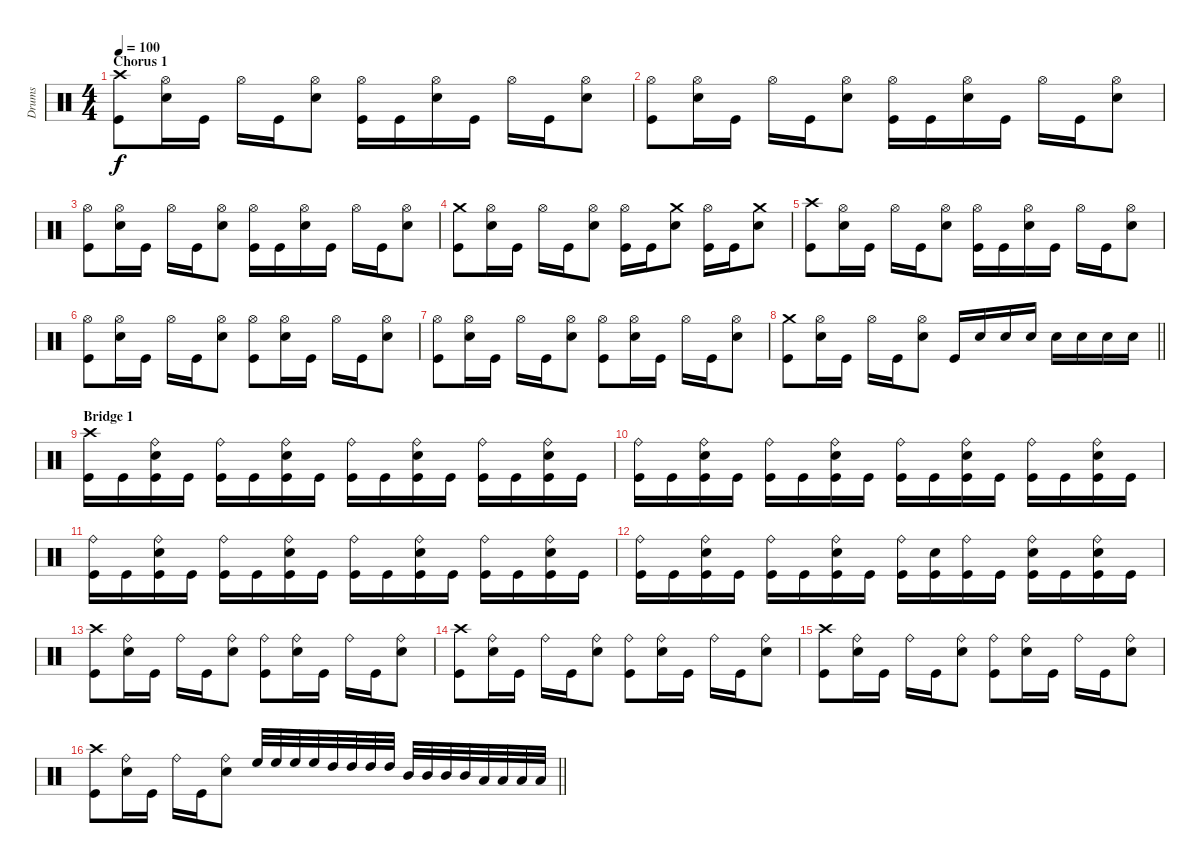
\track ("Drums" "Drums") {instrument percussion}
\staff {score}
\articulation defaults
\ts (4 4)
\section ("" "Chorus 1")
\tempo 100
\clef neutral
\ks c
("Kick (hit)" "Crash high (hit)").8{dy f} ("Electric Snare (hit)" "Hi-Hat (open)").16 "Kick (hit)".16 "Hi-Hat (open)".16 "Kick (hit)".16 ("Electric Snare (hit)" "Hi-Hat (open)").8 ("Kick (hit)" "Hi-Hat (open)").16 "Kick (hit)".16 ("Electric Snare (hit)" "Hi-Hat (open)").16 "Kick (hit)".16 "Hi-Hat (open)".16 "Kick (hit)".16 ("Electric Snare (hit)" "Hi-Hat (open)").8 |
("Kick (hit)" "Hi-Hat (open)").8 ("Electric Snare (hit)" "Hi-Hat (open)").16 "Kick (hit)".16 "Hi-Hat (open)".16 "Kick (hit)".16 ("Electric Snare (hit)" "Hi-Hat (open)").8 ("Kick (hit)" "Hi-Hat (open)").16 "Kick (hit)".16 ("Electric Snare (hit)" "Hi-Hat (open)").16 "Kick (hit)".16 "Hi-Hat (open)".16 "Kick (hit)".16 ("Electric Snare (hit)" "Hi-Hat (open)").8 |
("Kick (hit)" "Hi-Hat (open)").8 ("Electric Snare (hit)" "Hi-Hat (open)").16 "Kick (hit)".16 "Hi-Hat (open)".16 "Kick (hit)".16 ("Electric Snare (hit)" "Hi-Hat (open)").8 ("Kick (hit)" "Hi-Hat (open)").16 "Kick (hit)".16 ("Electric Snare (hit)" "Hi-Hat (open)").16 "Kick (hit)".16 "Hi-Hat (open)".16 "Kick (hit)".16 ("Electric Snare (hit)" "Hi-Hat (open)").8 |
("Kick (hit)" "Crash medium (hit)").8 ("Electric Snare (hit)" "Hi-Hat (open)").16 "Kick (hit)".16 "Hi-Hat (open)".16 "Kick (hit)".16 ("Electric Snare (hit)" "Hi-Hat (open)").8 ("Kick (hit)" "Hi-Hat (open)").16 "Kick (hit)".16 ("Electric Snare (hit)" "Crash medium (hit)").8 ("Kick (hit)" "Hi-Hat (open)").16 "Kick (hit)".16 ("Electric Snare (hit)" "Crash medium (hit)").8 |
("Kick (hit)" "Crash high (hit)").8 ("Electric Snare (hit)" "Hi-Hat (open)").16 "Kick (hit)".16 "Hi-Hat (open)".16 "Kick (hit)".16 ("Electric Snare (hit)" "Hi-Hat (open)").8 ("Kick (hit)" "Hi-Hat (open)").16 "Kick (hit)".16 ("Electric Snare (hit)" "Hi-Hat (open)").16 "Kick (hit)".16 "Hi-Hat (open)".16 "Kick (hit)".16 ("Electric Snare (hit)" "Hi-Hat (open)").8 |
("Kick (hit)" "Hi-Hat (open)").8 ("Electric Snare (hit)" "Hi-Hat (open)").16 "Kick (hit)".16 "Hi-Hat (open)".16 "Kick (hit)".16 ("Electric Snare (hit)" "Hi-Hat (open)").8 ("Kick (hit)" "Hi-Hat (open)").8 ("Electric Snare (hit)" "Hi-Hat (open)").16 "Kick (hit)".16 "Hi-Hat (open)".16 "Kick (hit)".16 ("Electric Snare (hit)" "Hi-Hat (open)").8 |
("Kick (hit)" "Hi-Hat (open)").8 ("Electric Snare (hit)" "Hi-Hat (open)").16 "Kick (hit)".16 "Hi-Hat (open)".16 "Kick (hit)".16 ("Electric Snare (hit)" "Hi-Hat (open)").8 ("Kick (hit)" "Hi-Hat (open)").8 ("Electric Snare (hit)" "Hi-Hat (open)").16 "Kick (hit)".16 "Hi-Hat (open)".16 "Kick (hit)".16 ("Electric Snare (hit)" "Hi-Hat (open)").8 |
\barLineRight lightlight
("Kick (hit)" "Crash medium (hit)").8 ("Electric Snare (hit)" "Hi-Hat (open)").16 "Kick (hit)".16 "Hi-Hat (open)".16 "Kick (hit)".16 ("Electric Snare (hit)" "Hi-Hat (open)").8 "Kick (hit)".16 "Electric Snare (hit)".16 "Electric Snare (hit)".16 "Electric Snare (hit)".16 "Electric Snare (hit)".16 "Electric Snare (hit)".16 "Electric Snare (hit)".16 "Electric Snare (hit)".16 |
\section ("" "Bridge 1")
("Kick (hit)" "Crash high (hit)").16 "Kick (hit)".16 ("Kick (hit)" "Electric Snare (hit)" "Ride (bell)").16 "Kick (hit)".16 ("Kick (hit)" "Ride (bell)").16 "Kick (hit)".16 ("Kick (hit)" "Electric Snare (hit)" "Ride (bell)").16 "Kick (hit)".16 ("Kick (hit)" "Ride (bell)").16 "Kick (hit)".16 ("Kick (hit)" "Electric Snare (hit)" "Ride (bell)").16 "Kick (hit)".16 ("Kick (hit)" "Ride (bell)").16 "Kick (hit)".16 ("Kick (hit)" "Electric Snare (hit)" "Ride (bell)").16 "Kick (hit)".16 |
("Kick (hit)" "Ride (bell)").16 "Kick (hit)".16 ("Kick (hit)" "Electric Snare (hit)" "Ride (bell)").16 "Kick (hit)".16 ("Kick (hit)" "Ride (bell)").16 "Kick (hit)".16 ("Kick (hit)" "Electric Snare (hit)" "Ride (bell)").16 "Kick (hit)".16 ("Kick (hit)" "Ride (bell)").16 "Kick (hit)".16 ("Kick (hit)" "Electric Snare (hit)" "Ride (bell)").16 "Kick (hit)".16 ("Kick (hit)" "Ride (bell)").16 "Kick (hit)".16 ("Kick (hit)" "Electric Snare (hit)" "Ride (bell)").16 "Kick (hit)".16 |
("Kick (hit)" "Ride (bell)").16 "Kick (hit)".16 ("Kick (hit)" "Electric Snare (hit)" "Ride (bell)").16 "Kick (hit)".16 ("Kick (hit)" "Ride (bell)").16 "Kick (hit)".16 ("Kick (hit)" "Electric Snare (hit)" "Ride (bell)").16 "Kick (hit)".16 ("Kick (hit)" "Ride (bell)").16 "Kick (hit)".16 ("Kick (hit)" "Electric Snare (hit)" "Ride (bell)").16 "Kick (hit)".16 ("Kick (hit)" "Ride (bell)").16 "Kick (hit)".16 ("Kick (hit)" "Electric Snare (hit)" "Ride (bell)").16 "Kick (hit)".16 |
("Kick (hit)" "Ride (bell)").16 "Kick (hit)".16 ("Kick (hit)" "Electric Snare (hit)" "Ride (bell)").16 "Kick (hit)".16 ("Kick (hit)" "Ride (bell)").16 "Kick (hit)".16 ("Kick (hit)" "Electric Snare (hit)" "Ride (bell)").16 "Kick (hit)".16 ("Kick (hit)" "Ride (bell)").16 ("Kick (hit)" "Electric Snare (hit)").16 ("Kick (hit)" "Ride (bell)").16 "Kick (hit)".16 ("Kick (hit)" "Electric Snare (hit)" "Ride (bell)").16 "Kick (hit)".16 ("Kick (hit)" "Electric Snare (hit)" "Ride (bell)").16 "Kick (hit)".16 |
("Kick (hit)" "Crash high (hit)").8 ("Electric Snare (hit)" "Ride (bell)").16 "Kick (hit)".16 "Ride (bell)".16 "Kick (hit)".16 ("Electric Snare (hit)" "Ride (bell)").8 ("Kick (hit)" "Ride (bell)").8 ("Electric Snare (hit)" "Ride (bell)").16 "Kick (hit)".16 "Ride (bell)".16 "Kick (hit)".16 ("Electric Snare (hit)" "Ride (bell)").8 |
("Kick (hit)" "Crash high (hit)").8 ("Electric Snare (hit)" "Ride (bell)").16 "Kick (hit)".16 "Ride (bell)".16 "Kick (hit)".16 ("Electric Snare (hit)" "Ride (bell)").8 ("Kick (hit)" "Ride (bell)").8 ("Electric Snare (hit)" "Ride (bell)").16 "Kick (hit)".16 "Ride (bell)".16 "Kick (hit)".16 ("Electric Snare (hit)" "Ride (bell)").8 |
("Kick (hit)" "Crash high (hit)").8 ("Electric Snare (hit)" "Ride (bell)").16 "Kick (hit)".16 "Ride (bell)".16 "Kick (hit)".16 ("Electric Snare (hit)" "Ride (bell)").8 ("Kick (hit)" "Ride (bell)").8 ("Electric Snare (hit)" "Ride (bell)").16 "Kick (hit)".16 "Ride (bell)".16 "Kick (hit)".16 ("Electric Snare (hit)" "Ride (bell)").8 |
\barLineRight lightlight
("Kick (hit)" "Crash high (hit)").8 ("Electric Snare (hit)" "Ride (bell)").16 "Kick (hit)".16 "Ride (bell)".16 "Kick (hit)".16 ("Electric Snare (hit)" "Ride (bell)").8 "High Floor Tom (hit)".32{beam Up} "High Floor Tom (hit)".32{beam Up} "High Floor Tom (hit)".32{beam Up} "High Floor Tom (hit)".32{beam Up} "High Tom (hit)".32{beam Up} "High Tom (hit)".32{beam Up} "High Tom (hit)".32{beam Up} "High Tom (hit)".32{beam Up} "Mid Tom (hit)".32{beam Up} "Mid Tom (hit)".32{beam Up} "Mid Tom (hit)".32{beam Up} "Mid Tom (hit)".32{beam Up} "Low Tom (hit)".32{beam Up} "Low Tom (hit)".32{beam Up} "Low Tom (hit)".32{beam Up} "Low Tom (hit)".32{beam Up}
